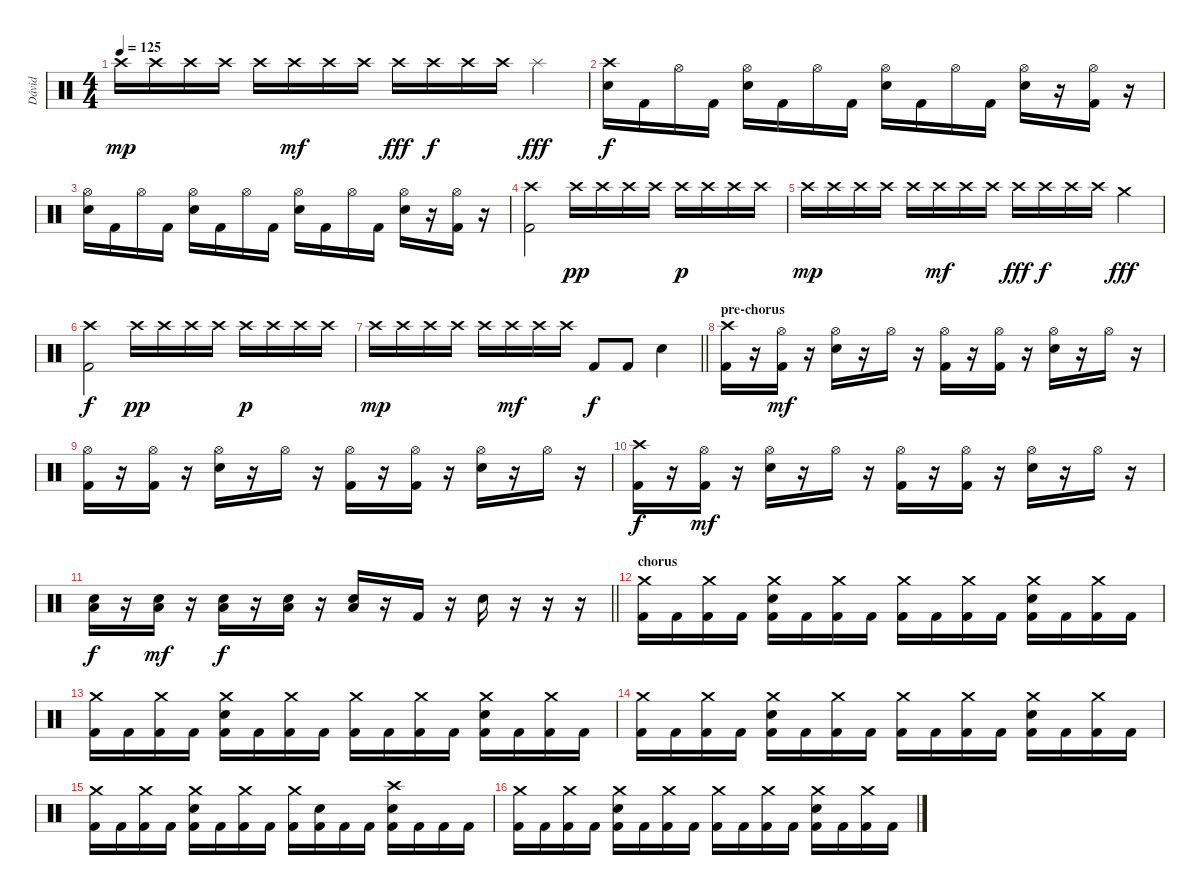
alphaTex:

\track ("Dávid" "Dávid") {instrument percussion}
\staff {score}
\articulation defaults
\ts (4 4)
\tempo 125
\clef neutral
\ks c "Crash high (hit)".16{dy mp} "Crash high (hit)".16 "Crash high (hit)".16 "Crash high (hit)".16 "Crash high (hit)".16 "Crash high (hit)".16{dy mf} "Crash high (hit)".16 "Crash high (hit)".16 "Crash high (hit)".16{dy fff} "Crash high (hit)".16{dy f} "Crash high (hit)".16 "Crash high (hit)".16 "Splash (hit)".4{dy fff}
|
("Crash high (hit)" "Electric Snare (hit)").16{dy f} "Kick (hit) 2".16 "Hi-Hat (open)".16 "Kick (hit) 2".16 ("Hi-Hat (open)" "Electric Snare (hit)").16 "Kick (hit) 2".16 "Hi-Hat (open)".16 "Kick (hit) 2".16 ("Hi-Hat (open)" "Electric Snare (hit)").16 "Kick (hit) 2".16 "Hi-Hat (open)".16 "Kick (hit) 2".16 ("Hi-Hat (open)" "Electric Snare (hit)").16 r.16 ("Hi-Hat (open)" "Kick (hit) 2").16 r.16 |
("Hi-Hat (open)" "Electric Snare (hit)").16 "Kick (hit) 2".16 "Hi-Hat (open)".16 "Kick (hit) 2".16 ("Hi-Hat (open)" "Electric Snare (hit)").16 "Kick (hit) 2".16 "Hi-Hat (open)".16 "Kick (hit) 2".16 ("Hi-Hat (open)" "Electric Snare (hit)").16 "Kick (hit) 2".16 "Hi-Hat (open)".16 "Kick (hit) 2".16 ("Hi-Hat (open)" "Electric Snare (hit)").16 r.16 ("Hi-Hat (open)" "Kick (hit) 2").16 r.16 |
("Crash high (hit)" "Kick (hit) 2").2 "Crash high (hit)".16{dy pp} "Crash high (hit)".16 "Crash high (hit)".16 "Crash high (hit)".16 "Crash high (hit)".16{dy p} "Crash high (hit)".16 "Crash high (hit)".16 "Crash high (hit)".16 |
"Crash high (hit)".16{dy mp} "Crash high (hit)".16 "Crash high (hit)".16 "Crash high (hit)".16 "Crash high (hit)".16 "Crash high (hit)".16{dy mf} "Crash high (hit)".16 "Crash high (hit)".16 "Crash high (hit)".16{dy fff} "Crash high (hit)".16{dy f} "Crash high (hit)".16 "Crash high (hit)".16 "Crash medium (hit)".4{dy fff} |
("Crash high (hit)" "Kick (hit) 2").2{dy f} "Crash high (hit)".16{dy pp} "Crash high (hit)".16 "Crash high (hit)".16 "Crash high (hit)".16 "Crash high (hit)".16{dy p} "Crash high (hit)".16 "Crash high (hit)".16 "Crash high (hit)".16 |
\barLineRight lightlight "Crash high (hit)".16{dy mp} "Crash high (hit)".16 "Crash high (hit)".16 "Crash high (hit)".16 "Crash high (hit)".16 "Crash high (hit)".16{dy mf} "Crash high (hit)".16 "Crash high (hit)".16 "Kick (hit) 2".8{dy f} "Kick (hit) 2".8 "Electric Snare (hit)".4
|
\section ("" "pre-chorus")
("Crash high (hit)" "Kick (hit) 2").16 r.16 ("Hi-Hat (open)" "Kick (hit) 2").16{dy mf} r.16 ("Hi-Hat (open)" "Electric Snare (hit)").16 r.16 "Hi-Hat (open)".16 r.16 ("Hi-Hat (open)" "Kick (hit) 2").16 r.16 ("Hi-Hat (open)" "Kick (hit) 2").16 r.16 ("Hi-Hat (open)" "Electric Snare (hit)").16 r.16 "Hi-Hat (open)".16 r.16 |
("Hi-Hat (open)" "Kick (hit) 2").16 r.16 ("Hi-Hat (open)" "Kick (hit) 2").16 r.16 ("Hi-Hat (open)" "Electric Snare (hit)").16 r.16 "Hi-Hat (open)".16 r.16 ("Hi-Hat (open)" "Kick (hit) 2").16 r.16 ("Hi-Hat (open)" "Kick (hit) 2").16 r.16 ("Hi-Hat (open)" "Electric Snare (hit)").16 r.16 "Hi-Hat (open)".16 r.16 |
("Crash high (hit)" "Kick (hit) 2").16{dy f} r.16 ("Hi-Hat (open)" "Kick (hit) 2").16{dy mf} r.16 ("Hi-Hat (open)" "Electric Snare (hit)").16 r.16 "Hi-Hat (open)".16 r.16 ("Hi-Hat (open)" "Kick (hit) 2").16 r.16 ("Hi-Hat (open)" "Kick (hit) 2").16 r.16 ("Hi-Hat (open)" "Electric Snare (hit)").16 r.16 "Hi-Hat (open)".16 r.16 |
\barLineRight lightlight
("Low Floor Tom (hit)" "Electric Snare (hit)").16{dy f} r.16 ("Low Floor Tom (hit)" "Electric Snare (hit)").16{dy mf} r.16 ("Low Floor Tom (hit)" "Electric Snare (hit)").16{dy f} r.16 ("Low Floor Tom (hit)" "Electric Snare (hit)").16 r.16 ("Low Floor Tom (hit)" "Electric Snare (hit)").16 r.16 "Kick (hit) 2".16 r.16 "Electric Snare (hit)".16 r.16 r.16 r.16 |
\section ("" "chorus")
("Crash medium (hit)" "Kick (hit) 2").16 "Kick (hit) 2".16 ("Crash medium (hit)" "Kick (hit) 2").16 "Kick (hit) 2".16 ("Crash medium (hit)" "Electric Snare (hit)" "Kick (hit) 2").16 "Kick (hit) 2".16 ("Crash medium (hit)" "Kick (hit) 2").16 "Kick (hit) 2".16 ("Crash medium (hit)" "Kick (hit) 2").16 "Kick (hit) 2".16 ("Crash medium (hit)" "Kick (hit) 2").16 "Kick (hit) 2".16 ("Crash medium (hit)" "Electric Snare (hit)" "Kick (hit) 2").16 "Kick (hit) 2".16 ("Crash medium (hit)" "Kick (hit) 2").16 "Kick (hit) 2".16 |
("Crash medium (hit)" "Kick (hit) 2").16 "Kick (hit) 2".16 ("Crash medium (hit)" "Kick (hit) 2").16 "Kick (hit) 2".16 ("Crash medium (hit)" "Electric Snare (hit)" "Kick (hit) 2").16 "Kick (hit) 2".16 ("Crash medium (hit)" "Kick (hit) 2").16 "Kick (hit) 2".16 ("Crash medium (hit)" "Kick (hit) 2").16 "Kick (hit) 2".16 ("Crash medium (hit)" "Kick (hit) 2").16 "Kick (hit) 2".16 ("Crash medium (hit)" "Electric Snare (hit)" "Kick (hit) 2").16 "Kick (hit) 2".16 ("Crash medium (hit)" "Kick (hit) 2").16 "Kick (hit) 2".16 |
("Crash medium (hit)" "Kick (hit) 2").16 "Kick (hit) 2".16 ("Crash medium (hit)" "Kick (hit) 2").16 "Kick (hit) 2".16 ("Crash medium (hit)" "Electric Snare (hit)" "Kick (hit) 2").16 "Kick (hit) 2".16 ("Crash medium (hit)" "Kick (hit) 2").16 "Kick (hit) 2".16 ("Crash medium (hit)" "Kick (hit) 2").16 "Kick (hit) 2".16 ("Crash medium (hit)" "Kick (hit) 2").16 "Kick (hit) 2".16 ("Crash medium (hit)" "Electric Snare (hit)" "Kick (hit) 2").16 "Kick (hit) 2".16 ("Crash medium (hit)" "Kick (hit) 2").16 "Kick (hit) 2".16 |
("Crash medium (hit)" "Kick (hit) 2").16 "Kick (hit) 2".16 ("Crash medium (hit)" "Kick (hit) 2").16 "Kick (hit) 2".16 ("Crash medium (hit)" "Electric Snare (hit)" "Kick (hit) 2").16 "Kick (hit) 2".16 ("Crash medium (hit)" "Kick (hit) 2").16 "Kick (hit) 2".16 ("Crash medium (hit)" "Kick (hit) 2").16 ("Electric Snare (hit)" "Kick (hit) 2").16 "Kick (hit) 2".16 "Kick (hit) 2".16 ("Crash high (hit)" "Electric Snare (hit)" "Kick (hit) 2").16 "Kick (hit) 2".16 "Kick (hit) 2".16 "Kick (hit) 2".16 |
("Crash medium (hit)" "Kick (hit) 2").16 "Kick (hit) 2".16 ("Crash medium (hit)" "Kick (hit) 2").16 "Kick (hit) 2".16 ("Crash medium (hit)" "Electric Snare (hit)" "Kick (hit) 2").16 "Kick (hit) 2".16 ("Crash medium (hit)" "Kick (hit) 2").16 "Kick (hit) 2".16 ("Crash medium (hit)" "Kick (hit) 2").16 "Kick (hit) 2".16 ("Crash medium (hit)" "Kick (hit) 2").16 "Kick (hit) 2".16 ("Crash medium (hit)" "Electric Snare (hit)" "Kick (hit) 2").16 "Kick (hit) 2".16 ("Crash medium (hit)" "Kick (hit) 2").16 "Kick (hit) 2".16
